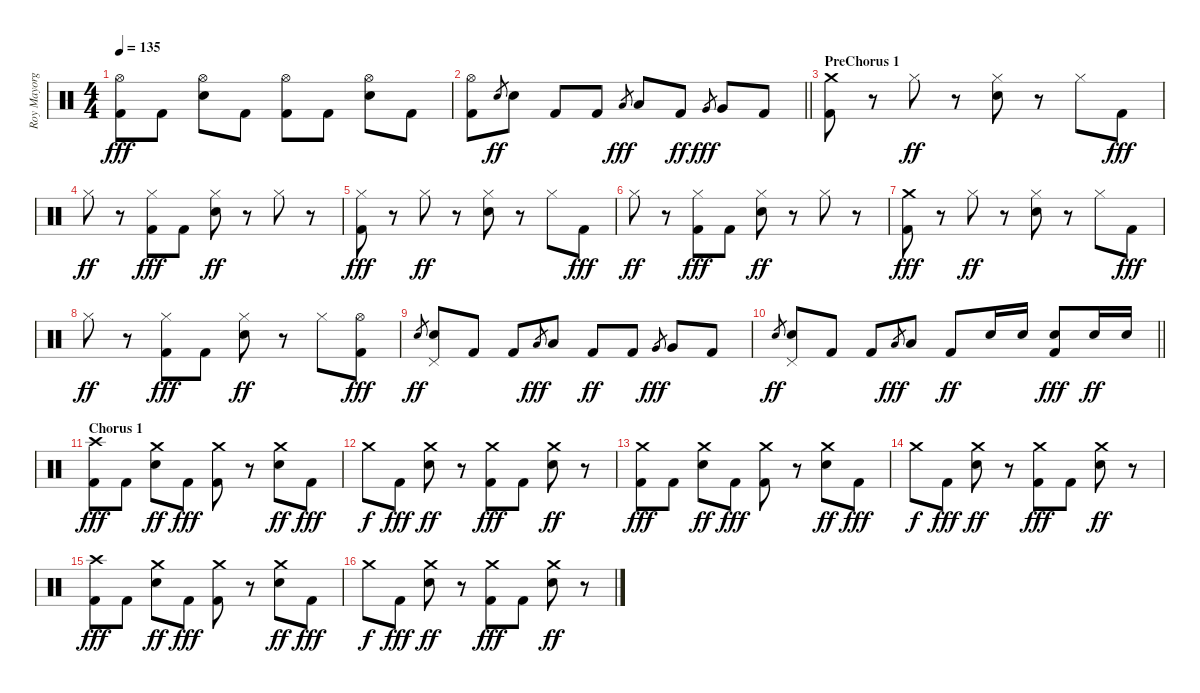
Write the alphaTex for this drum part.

\track ("Roy Mayorga" "Roy Mayorg") {instrument percussion}
\staff {score}
\articulation defaults
\ts (4 4)
\tempo 135
\clef neutral
\ks c
("Hi-Hat (open)" "Kick (hit) 2").8{dy fff} "Kick (hit) 2".8 ("Hi-Hat (open)" "Electric Snare (hit)").8 "Kick (hit) 2".8 ("Hi-Hat (open)" "Kick (hit) 2").8 "Kick (hit) 2".8 ("Hi-Hat (open)" "Electric Snare (hit)").8 "Kick (hit) 2".8 |
\barLineRight lightlight
("Hi-Hat (open)" "Kick (hit) 2").8 "Electric Snare (hit)".8{gr dy ff} "Electric Snare (hit)".8 "Kick (hit) 2".8 "Kick (hit) 2".8 "Low Tom (hit)".8{gr dy fff} "Low Tom (hit)".8 "Kick (hit) 2".8{dy ff} "Very Low Tom (hit)".8{gr dy fff} "Very Low Tom (hit)".8 "Kick (hit) 2".8 |
\section ("" "PreChorus 1")
("Crash medium (hit)" "Kick (hit) 2").8 r.8 "Hi-Hat (closed)".8{dy ff} r.8 ("Hi-Hat (closed)" "Electric Snare (hit)").8 r.8 "Hi-Hat (closed)".8 "Kick (hit) 2".8{dy fff} |
"Hi-Hat (closed)".8{dy ff} r.8 ("Hi-Hat (closed)" "Kick (hit) 2").8{dy fff} "Kick (hit) 2".8 ("Hi-Hat (closed)" "Electric Snare (hit)").8{dy ff} r.8 "Hi-Hat (closed)".8 r.8 |
("Hi-Hat (closed)" "Kick (hit) 2").8{dy fff} r.8 "Hi-Hat (closed)".8{dy ff} r.8 ("Hi-Hat (closed)" "Electric Snare (hit)").8 r.8 "Hi-Hat (closed)".8 "Kick (hit) 2".8{dy fff} |
"Hi-Hat (closed)".8{dy ff} r.8 ("Hi-Hat (closed)" "Kick (hit) 2").8{dy fff} "Kick (hit) 2".8 ("Hi-Hat (closed)" "Electric Snare (hit)").8{dy ff} r.8 "Hi-Hat (closed)".8 r.8 |
("Crash medium (hit)" "Kick (hit) 2").8{dy fff} r.8 "Hi-Hat (closed)".8{dy ff} r.8 ("Hi-Hat (closed)" "Electric Snare (hit)").8 r.8 "Hi-Hat (closed)".8 "Kick (hit) 2".8{dy fff} |
"Hi-Hat (closed)".8{dy ff} r.8 ("Hi-Hat (closed)" "Kick (hit) 2").8{dy fff} "Kick (hit) 2".8 ("Hi-Hat (closed)" "Electric Snare (hit)").8{dy ff} r.8 "Hi-Hat (closed)".8 ("Hi-Hat (open)" "Kick (hit) 2").8{dy fff} |
"Electric Snare (hit)".8{gr dy ff} ("Electric Snare (hit)" "Pedal Hi-Hat (hit)").8 "Kick (hit) 2".8 "Kick (hit) 2".8 "Low Tom (hit)".8{gr dy fff} "Low Tom (hit)".8 "Kick (hit) 2".8{dy ff} "Kick (hit) 2".8 "Very Low Tom (hit)".8{gr dy fff} "Very Low Tom (hit)".8 "Kick (hit) 2".8 |
\barLineRight lightlight "Electric Snare (hit)".8{gr dy ff}
("Electric Snare (hit)" "Pedal Hi-Hat (hit)").8 "Kick (hit) 2".8 "Kick (hit) 2".8 "Low Tom (hit)".8{gr dy fff} "Low Tom (hit)".8 "Kick (hit) 2".8{dy ff} "Electric Snare (hit)".16 "Electric Snare (hit)".16 ("Electric Snare (hit)" "Kick (hit) 2").8{dy fff} "Electric Snare (hit)".16{dy ff} "Electric Snare (hit)".16 |
\section ("" "Chorus 1")
("Crash high (hit)" "Kick (hit) 2").8{dy fff} "Kick (hit) 2".8 ("Crash medium (hit)" "Electric Snare (hit)").8{dy ff} "Kick (hit) 2".8{dy fff} ("Crash medium (hit)" "Kick (hit) 2").8 r.8 ("Crash medium (hit)" "Electric Snare (hit)").8{dy ff} "Kick (hit) 2".8{dy fff} |
"Crash medium (hit)".8{dy f} "Kick (hit) 2".8{dy fff} ("Crash medium (hit)" "Electric Snare (hit)").8{dy ff} r.8 ("Crash medium (hit)" "Kick (hit) 2").8{dy fff} "Kick (hit) 2".8 ("Crash medium (hit)" "Electric Snare (hit)").8{dy ff} r.8 |
("Crash medium (hit)" "Kick (hit) 2").8{dy fff} "Kick (hit) 2".8 ("Crash medium (hit)" "Electric Snare (hit)").8{dy ff} "Kick (hit) 2".8{dy fff} ("Crash medium (hit)" "Kick (hit) 2").8 r.8 ("Crash medium (hit)" "Electric Snare (hit)").8{dy ff} "Kick (hit) 2".8{dy fff} |
"Crash medium (hit)".8{dy f} "Kick (hit) 2".8{dy fff} ("Crash medium (hit)" "Electric Snare (hit)").8{dy ff} r.8 ("Crash medium (hit)" "Kick (hit) 2").8{dy fff} "Kick (hit) 2".8 ("Crash medium (hit)" "Electric Snare (hit)").8{dy ff} r.8 |
("Crash high (hit)" "Kick (hit) 2").8{dy fff} "Kick (hit) 2".8 ("Crash medium (hit)" "Electric Snare (hit)").8{dy ff} "Kick (hit) 2".8{dy fff} ("Crash medium (hit)" "Kick (hit) 2").8 r.8 ("Crash medium (hit)" "Electric Snare (hit)").8{dy ff} "Kick (hit) 2".8{dy fff} |
"Crash medium (hit)".8{dy f} "Kick (hit) 2".8{dy fff} ("Crash medium (hit)" "Electric Snare (hit)").8{dy ff} r.8 ("Crash medium (hit)" "Kick (hit) 2").8{dy fff} "Kick (hit) 2".8 ("Crash medium (hit)" "Electric Snare (hit)").8{dy ff} r.8
